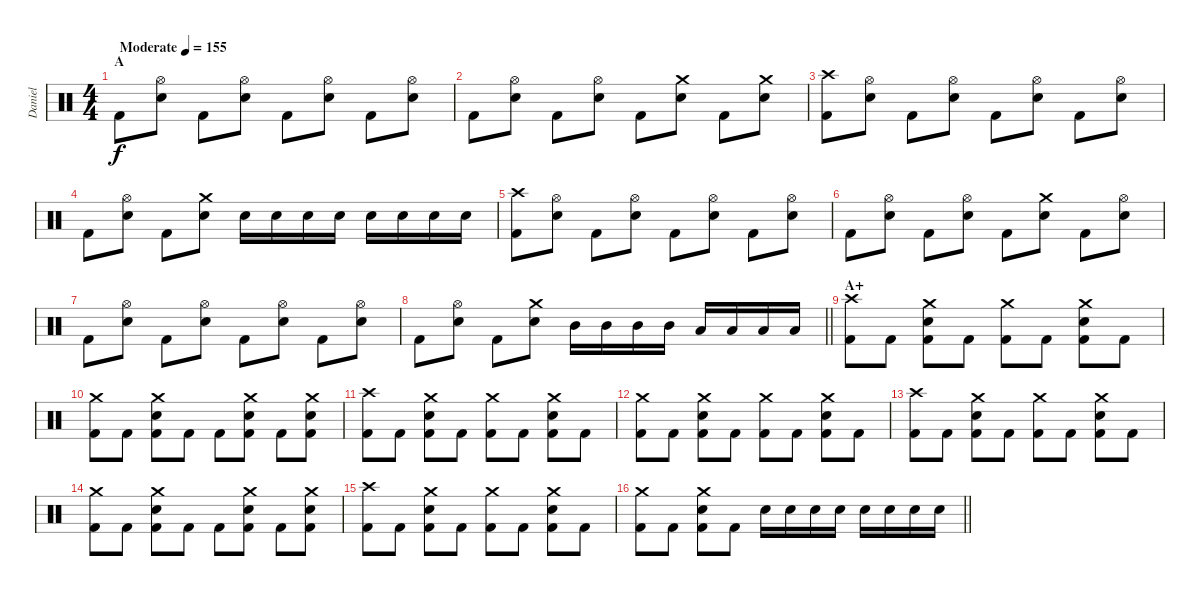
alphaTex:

\track ("Daniel" "Daniel") {instrument percussion}
\staff {score}
\articulation defaults
\ts (4 4)
\section ("" "A")
\tempo (155 "Moderate")
\clef neutral
\ks c "Kick (hit) 2".8{dy f}
("Hi-Hat (open)" "Snare (hit) 2").8 "Kick (hit) 2".8 ("Hi-Hat (open)" "Snare (hit) 2").8 "Kick (hit) 2".8 ("Hi-Hat (open)" "Snare (hit) 2").8 "Kick (hit) 2".8 ("Hi-Hat (open)" "Snare (hit) 2").8 |
"Kick (hit) 2".8 ("Hi-Hat (open)" "Snare (hit) 2").8 "Kick (hit) 2".8 ("Hi-Hat (open)" "Snare (hit) 2").8 "Kick (hit) 2".8 ("Crash medium (hit)" "Snare (hit) 2").8 "Kick (hit) 2".8 ("Crash medium (hit)" "Snare (hit) 2").8 |
("Crash high (hit)" "Kick (hit) 2").8 ("Hi-Hat (open)" "Snare (hit) 2").8 "Kick (hit) 2".8 ("Hi-Hat (open)" "Snare (hit) 2").8 "Kick (hit) 2".8 ("Hi-Hat (open)" "Snare (hit) 2").8 "Kick (hit) 2".8 ("Hi-Hat (open)" "Snare (hit) 2").8 |
"Kick (hit) 2".8 ("Hi-Hat (open)" "Snare (hit) 2").8 "Kick (hit) 2".8 ("Crash medium (hit)" "Snare (hit) 2").8 "Snare (hit) 2".16 "Snare (hit) 2".16 "Snare (hit) 2".16 "Snare (hit) 2".16 "Snare (hit) 2".16 "Snare (hit) 2".16 "Snare (hit) 2".16 "Snare (hit) 2".16 |
("Crash high (hit)" "Kick (hit) 2").8 ("Hi-Hat (open)" "Snare (hit) 2").8 "Kick (hit) 2".8 ("Hi-Hat (open)" "Snare (hit) 2").8 "Kick (hit) 2".8 ("Hi-Hat (open)" "Snare (hit) 2").8 "Kick (hit) 2".8 ("Hi-Hat (open)" "Snare (hit) 2").8 |
"Kick (hit) 2".8 ("Hi-Hat (open)" "Snare (hit) 2").8 "Kick (hit) 2".8 ("Hi-Hat (open)" "Snare (hit) 2").8 "Kick (hit) 2".8 ("Crash medium (hit)" "Snare (hit) 2").8 "Kick (hit) 2".8 ("Hi-Hat (open)" "Snare (hit) 2").8 |
"Kick (hit) 2".8 ("Hi-Hat (open)" "Snare (hit) 2").8 "Kick (hit) 2".8 ("Hi-Hat (open)" "Snare (hit) 2").8 "Kick (hit) 2".8 ("Hi-Hat (open)" "Snare (hit) 2").8 "Kick (hit) 2".8 ("Hi-Hat (open)" "Snare (hit) 2").8 |
\barLineRight lightlight "Kick (hit) 2".8
("Hi-Hat (open)" "Snare (hit) 2").8 "Kick (hit) 2".8 ("Crash medium (hit)" "Snare (hit) 2").8 "Mid Tom (hit)".16 "Mid Tom (hit)".16 "Mid Tom (hit)".16 "Mid Tom (hit)".16 "Low Tom (hit)".16 "Low Tom (hit)".16 "Low Tom (hit)".16 "Low Tom (hit)".16 |
\section ("" "A+")
("Crash high (hit)" "Kick (hit) 2").8 "Kick (hit) 2".8 ("Crash medium (hit)" "Snare (hit) 2" "Kick (hit) 2").8 "Kick (hit) 2".8 ("Crash medium (hit)" "Kick (hit) 2").8 "Kick (hit) 2".8 ("Crash medium (hit)" "Snare (hit) 2" "Kick (hit) 2").8 "Kick (hit) 2".8 |
("Crash medium (hit)" "Kick (hit) 2").8 "Kick (hit) 2".8 ("Crash medium (hit)" "Snare (hit) 2" "Kick (hit) 2").8 "Kick (hit) 2".8 "Kick (hit) 2".8 ("Crash medium (hit)" "Snare (hit) 2" "Kick (hit) 2").8 "Kick (hit) 2".8 ("Crash medium (hit)" "Snare (hit) 2" "Kick (hit) 2").8 |
("Crash high (hit)" "Kick (hit) 2").8 "Kick (hit) 2".8 ("Crash medium (hit)" "Snare (hit) 2" "Kick (hit) 2").8 "Kick (hit) 2".8 ("Crash medium (hit)" "Kick (hit) 2").8 "Kick (hit) 2".8 ("Crash medium (hit)" "Snare (hit) 2" "Kick (hit) 2").8 "Kick (hit) 2".8 |
("Crash medium (hit)" "Kick (hit) 2").8 "Kick (hit) 2".8 ("Crash medium (hit)" "Snare (hit) 2" "Kick (hit) 2").8 "Kick (hit) 2".8 ("Crash medium (hit)" "Kick (hit) 2").8 "Kick (hit) 2".8 ("Crash medium (hit)" "Snare (hit) 2" "Kick (hit) 2").8 "Kick (hit) 2".8 |
("Crash high (hit)" "Kick (hit) 2").8 "Kick (hit) 2".8 ("Crash medium (hit)" "Snare (hit) 2" "Kick (hit) 2").8 "Kick (hit) 2".8 ("Crash medium (hit)" "Kick (hit) 2").8 "Kick (hit) 2".8 ("Crash medium (hit)" "Snare (hit) 2" "Kick (hit) 2").8 "Kick (hit) 2".8 |
("Crash medium (hit)" "Kick (hit) 2").8 "Kick (hit) 2".8 ("Crash medium (hit)" "Snare (hit) 2" "Kick (hit) 2").8 "Kick (hit) 2".8 "Kick (hit) 2".8 ("Crash medium (hit)" "Snare (hit) 2" "Kick (hit) 2").8 "Kick (hit) 2".8 ("Crash medium (hit)" "Snare (hit) 2" "Kick (hit) 2").8 |
("Crash high (hit)" "Kick (hit) 2").8 "Kick (hit) 2".8 ("Crash medium (hit)" "Snare (hit) 2" "Kick (hit) 2").8 "Kick (hit) 2".8 ("Crash medium (hit)" "Kick (hit) 2").8 "Kick (hit) 2".8 ("Crash medium (hit)" "Snare (hit) 2" "Kick (hit) 2").8 "Kick (hit) 2".8 |
\barLineRight lightlight
("Crash medium (hit)" "Kick (hit) 2").8 "Kick (hit) 2".8 ("Crash medium (hit)" "Snare (hit) 2" "Kick (hit) 2").8 "Kick (hit) 2".8 "Snare (hit) 2".16 "Snare (hit) 2".16 "Snare (hit) 2".16 "Snare (hit) 2".16 "Snare (hit) 2".16 "Snare (hit) 2".16 "Snare (hit) 2".16 "Snare (hit) 2".16
